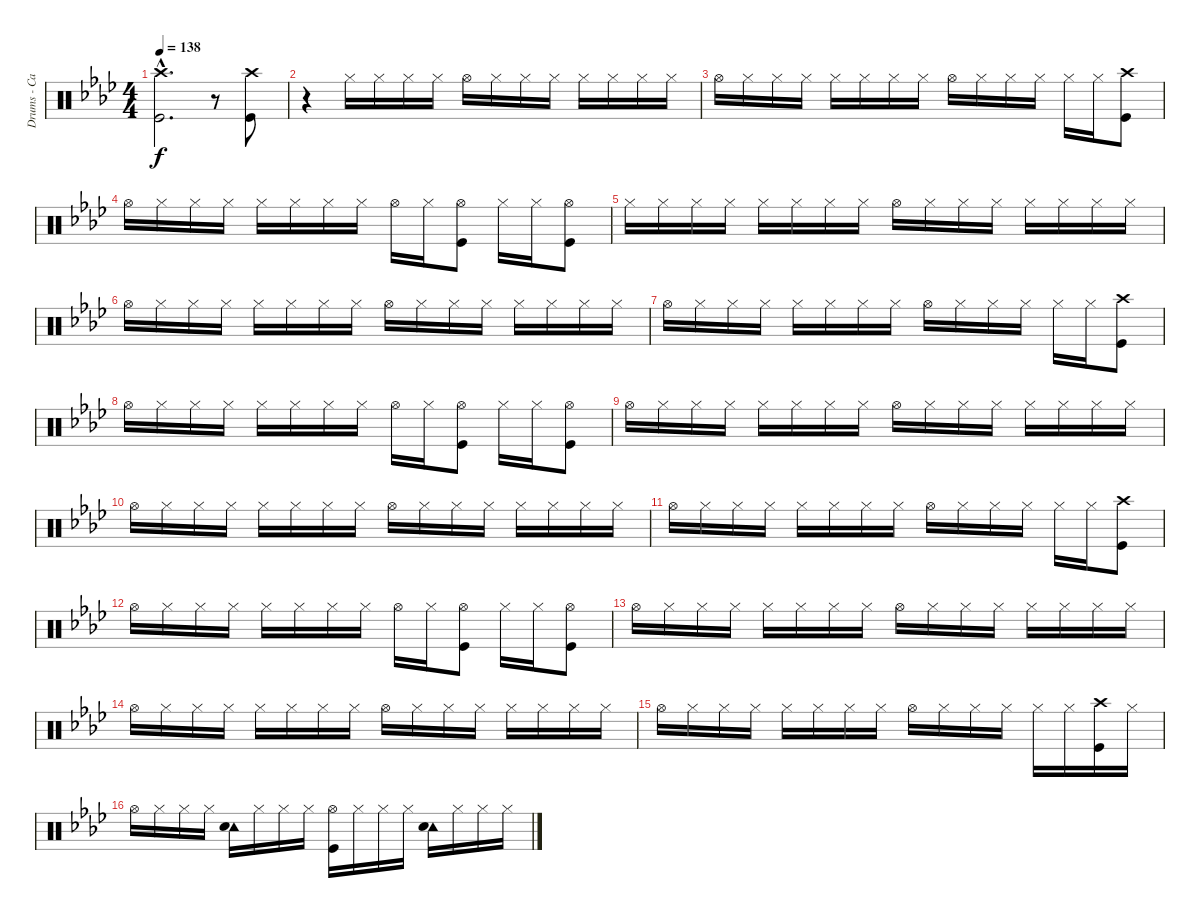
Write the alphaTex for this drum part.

\track ("Drums - Carl Palmer" "Drums - Ca") {instrument percussion}
\staff {score}
\articulation defaults
\ts (4 4)
\tempo 138
\clef neutral
\ks ab
("Crash high (hit)"{hac} "Kick (hit)"{hac}).2{d dy f} r.8 ("Crash high (hit)" "Kick (hit)").8 |
r.4 "Hi-Hat (closed)".16 "Hi-Hat (closed)".16 "Hi-Hat (closed)".16 "Hi-Hat (closed)".16 "Hi-Hat (open)".16 "Hi-Hat (closed)".16 "Hi-Hat (closed)".16 "Hi-Hat (closed)".16 "Hi-Hat (closed)".16 "Hi-Hat (closed)".16 "Hi-Hat (closed)".16 "Hi-Hat (closed)".16 |
"Hi-Hat (open)".16 "Hi-Hat (closed)".16 "Hi-Hat (closed)".16 "Hi-Hat (closed)".16 "Hi-Hat (closed)".16 "Hi-Hat (closed)".16 "Hi-Hat (closed)".16 "Hi-Hat (closed)".16 "Hi-Hat (open)".16 "Hi-Hat (closed)".16 "Hi-Hat (closed)".16 "Hi-Hat (closed)".16 "Hi-Hat (closed)".16 "Hi-Hat (closed)".16 ("Crash high (hit)" "Kick (hit)").8 |
"Hi-Hat (open)".16 "Hi-Hat (closed)".16 "Hi-Hat (closed)".16 "Hi-Hat (closed)".16 "Hi-Hat (closed)".16 "Hi-Hat (closed)".16 "Hi-Hat (closed)".16 "Hi-Hat (closed)".16 "Hi-Hat (open)".16 "Hi-Hat (closed)".16 ("Hi-Hat (open)" "Kick (hit)").8 "Hi-Hat (closed)".16 "Hi-Hat (closed)".16 ("Hi-Hat (open)" "Kick (hit)").8 |
"Hi-Hat (closed)".16 "Hi-Hat (closed)".16 "Hi-Hat (closed)".16 "Hi-Hat (closed)".16 "Hi-Hat (closed)".16 "Hi-Hat (closed)".16 "Hi-Hat (closed)".16 "Hi-Hat (closed)".16 "Hi-Hat (open)".16 "Hi-Hat (closed)".16 "Hi-Hat (closed)".16 "Hi-Hat (closed)".16 "Hi-Hat (closed)".16 "Hi-Hat (closed)".16 "Hi-Hat (closed)".16 "Hi-Hat (closed)".16 |
"Hi-Hat (open)".16 "Hi-Hat (closed)".16 "Hi-Hat (closed)".16 "Hi-Hat (closed)".16 "Hi-Hat (closed)".16 "Hi-Hat (closed)".16 "Hi-Hat (closed)".16 "Hi-Hat (closed)".16 "Hi-Hat (open)".16 "Hi-Hat (closed)".16 "Hi-Hat (closed)".16 "Hi-Hat (closed)".16 "Hi-Hat (closed)".16 "Hi-Hat (closed)".16 "Hi-Hat (closed)".16 "Hi-Hat (closed)".16 |
"Hi-Hat (open)".16 "Hi-Hat (closed)".16 "Hi-Hat (closed)".16 "Hi-Hat (closed)".16 "Hi-Hat (closed)".16 "Hi-Hat (closed)".16 "Hi-Hat (closed)".16 "Hi-Hat (closed)".16 "Hi-Hat (open)".16 "Hi-Hat (closed)".16 "Hi-Hat (closed)".16 "Hi-Hat (closed)".16 "Hi-Hat (closed)".16 "Hi-Hat (closed)".16 ("Crash high (hit)" "Kick (hit)").8 |
"Hi-Hat (open)".16 "Hi-Hat (closed)".16 "Hi-Hat (closed)".16 "Hi-Hat (closed)".16 "Hi-Hat (closed)".16 "Hi-Hat (closed)".16 "Hi-Hat (closed)".16 "Hi-Hat (closed)".16 "Hi-Hat (open)".16 "Hi-Hat (closed)".16 ("Hi-Hat (open)" "Kick (hit)").8 "Hi-Hat (closed)".16 "Hi-Hat (closed)".16 ("Hi-Hat (open)" "Kick (hit)").8 |
"Hi-Hat (open)".16 "Hi-Hat (closed)".16 "Hi-Hat (closed)".16 "Hi-Hat (closed)".16 "Hi-Hat (closed)".16 "Hi-Hat (closed)".16 "Hi-Hat (closed)".16 "Hi-Hat (closed)".16 "Hi-Hat (open)".16 "Hi-Hat (closed)".16 "Hi-Hat (closed)".16 "Hi-Hat (closed)".16 "Hi-Hat (closed)".16 "Hi-Hat (closed)".16 "Hi-Hat (closed)".16 "Hi-Hat (closed)".16 |
"Hi-Hat (open)".16 "Hi-Hat (closed)".16 "Hi-Hat (closed)".16 "Hi-Hat (closed)".16 "Hi-Hat (closed)".16 "Hi-Hat (closed)".16 "Hi-Hat (closed)".16 "Hi-Hat (closed)".16 "Hi-Hat (open)".16 "Hi-Hat (closed)".16 "Hi-Hat (closed)".16 "Hi-Hat (closed)".16 "Hi-Hat (closed)".16 "Hi-Hat (closed)".16 "Hi-Hat (closed)".16 "Hi-Hat (closed)".16 |
"Hi-Hat (open)".16 "Hi-Hat (closed)".16 "Hi-Hat (closed)".16 "Hi-Hat (closed)".16 "Hi-Hat (closed)".16 "Hi-Hat (closed)".16 "Hi-Hat (closed)".16 "Hi-Hat (closed)".16 "Hi-Hat (open)".16 "Hi-Hat (closed)".16 "Hi-Hat (closed)".16 "Hi-Hat (closed)".16 "Hi-Hat (closed)".16 "Hi-Hat (closed)".16 ("Crash high (hit)" "Kick (hit)").8 |
"Hi-Hat (open)".16 "Hi-Hat (closed)".16 "Hi-Hat (closed)".16 "Hi-Hat (closed)".16 "Hi-Hat (closed)".16 "Hi-Hat (closed)".16 "Hi-Hat (closed)".16 "Hi-Hat (closed)".16 "Hi-Hat (open)".16 "Hi-Hat (closed)".16 ("Hi-Hat (open)" "Kick (hit)").8 "Hi-Hat (closed)".16 "Hi-Hat (closed)".16 ("Hi-Hat (open)" "Kick (hit)").8 |
"Hi-Hat (open)".16 "Hi-Hat (closed)".16 "Hi-Hat (closed)".16 "Hi-Hat (closed)".16 "Hi-Hat (closed)".16 "Hi-Hat (closed)".16 "Hi-Hat (closed)".16 "Hi-Hat (closed)".16 "Hi-Hat (open)".16 "Hi-Hat (closed)".16 "Hi-Hat (closed)".16 "Hi-Hat (closed)".16 "Hi-Hat (closed)".16 "Hi-Hat (closed)".16 "Hi-Hat (closed)".16 "Hi-Hat (closed)".16 |
"Hi-Hat (open)".16 "Hi-Hat (closed)".16 "Hi-Hat (closed)".16 "Hi-Hat (closed)".16 "Hi-Hat (closed)".16 "Hi-Hat (closed)".16 "Hi-Hat (closed)".16 "Hi-Hat (closed)".16 "Hi-Hat (open)".16 "Hi-Hat (closed)".16 "Hi-Hat (closed)".16 "Hi-Hat (closed)".16 "Hi-Hat (closed)".16 "Hi-Hat (closed)".16 "Hi-Hat (closed)".16 "Hi-Hat (closed)".16 |
"Hi-Hat (open)".16 "Hi-Hat (closed)".16 "Hi-Hat (closed)".16 "Hi-Hat (closed)".16 "Hi-Hat (closed)".16 "Hi-Hat (closed)".16 "Hi-Hat (closed)".16 "Hi-Hat (closed)".16 "Hi-Hat (open)".16 "Hi-Hat (closed)".16 "Hi-Hat (closed)".16 "Hi-Hat (closed)".16 "Hi-Hat (closed)".16 "Hi-Hat (closed)".16 ("Crash high (hit)" "Kick (hit)").16 "Hi-Hat (closed)".16 |
"Hi-Hat (open)".16 "Hi-Hat (closed)".16 "Hi-Hat (closed)".16 "Hi-Hat (closed)".16 ("Tambourine (hit)" "Snare (hit) 2").16 "Hi-Hat (closed)".16 "Hi-Hat (closed)".16 "Hi-Hat (closed)".16 ("Hi-Hat (open)" "Kick (hit)").16 "Hi-Hat (closed)".16 "Hi-Hat (closed)".16 "Hi-Hat (closed)".16 ("Tambourine (hit)" "Snare (hit) 2").16 "Hi-Hat (closed)".16 "Hi-Hat (closed)".16 "Hi-Hat (closed)".16
